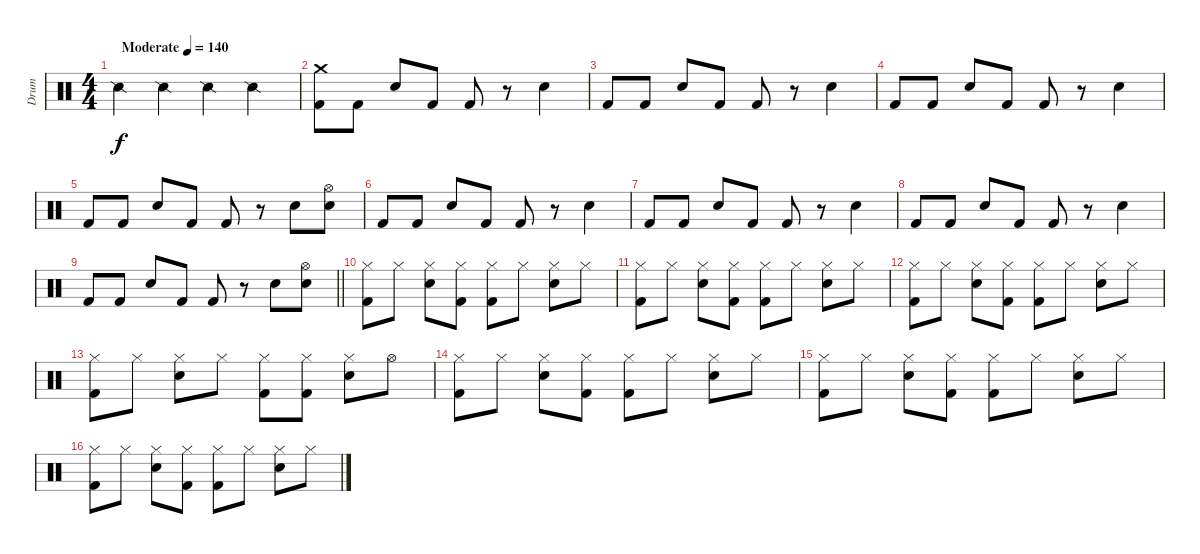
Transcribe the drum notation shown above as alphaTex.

\track ("Drum" "Drum") {instrument percussion}
\staff {score}
\articulation defaults
\ts (4 4)
\tempo (140 "Moderate")
\clef neutral
\ks c "Snare (side stick) 2".4{dy f} "Snare (side stick) 2".4 "Snare (side stick) 2".4 "Snare (side stick) 2".4
|
("Crash medium (hit)" "Kick (hit) 2").8 "Kick (hit) 2".8 "Electric Snare (hit)".8 "Kick (hit) 2".8 "Kick (hit) 2".8 r.8 "Electric Snare (hit)".4 |
"Kick (hit) 2".8 "Kick (hit) 2".8 "Electric Snare (hit)".8 "Kick (hit) 2".8 "Kick (hit) 2".8 r.8 "Electric Snare (hit)".4 |
"Kick (hit) 2".8 "Kick (hit) 2".8 "Electric Snare (hit)".8 "Kick (hit) 2".8 "Kick (hit) 2".8 r.8 "Electric Snare (hit)".4 |
"Kick (hit) 2".8 "Kick (hit) 2".8 "Electric Snare (hit)".8 "Kick (hit) 2".8 "Kick (hit) 2".8 r.8 "Electric Snare (hit)".8 ("Hi-Hat (open)" "Electric Snare (hit)").8 |
"Kick (hit) 2".8 "Kick (hit) 2".8 "Electric Snare (hit)".8 "Kick (hit) 2".8 "Kick (hit) 2".8 r.8 "Electric Snare (hit)".4 |
"Kick (hit) 2".8 "Kick (hit) 2".8 "Electric Snare (hit)".8 "Kick (hit) 2".8 "Kick (hit) 2".8 r.8 "Electric Snare (hit)".4 |
"Kick (hit) 2".8 "Kick (hit) 2".8 "Electric Snare (hit)".8 "Kick (hit) 2".8 "Kick (hit) 2".8 r.8 "Electric Snare (hit)".4 |
\barLineRight lightlight "Kick (hit) 2".8 "Kick (hit) 2".8 "Electric Snare (hit)".8 "Kick (hit) 2".8 "Kick (hit) 2".8
r.8 "Electric Snare (hit)".8 ("Hi-Hat (open)" "Electric Snare (hit)").8 |
("Hi-Hat (closed)" "Kick (hit) 2").8 "Hi-Hat (closed)".8 ("Hi-Hat (closed)" "Electric Snare (hit)").8 ("Hi-Hat (closed)" "Kick (hit) 2").8 ("Hi-Hat (closed)" "Kick (hit) 2").8 "Hi-Hat (closed)".8 ("Hi-Hat (closed)" "Electric Snare (hit)").8 "Hi-Hat (closed)".8 |
("Hi-Hat (closed)" "Kick (hit) 2").8 "Hi-Hat (closed)".8 ("Hi-Hat (closed)" "Electric Snare (hit)").8 ("Hi-Hat (closed)" "Kick (hit) 2").8 ("Hi-Hat (closed)" "Kick (hit) 2").8 "Hi-Hat (closed)".8 ("Hi-Hat (closed)" "Electric Snare (hit)").8 "Hi-Hat (closed)".8 |
("Hi-Hat (closed)" "Kick (hit) 2").8 "Hi-Hat (closed)".8 ("Hi-Hat (closed)" "Electric Snare (hit)").8 ("Hi-Hat (closed)" "Kick (hit) 2").8 ("Hi-Hat (closed)" "Kick (hit) 2").8 "Hi-Hat (closed)".8 ("Hi-Hat (closed)" "Electric Snare (hit)").8 "Hi-Hat (closed)".8 |
("Hi-Hat (closed)" "Kick (hit) 2").8 "Hi-Hat (closed)".8 ("Hi-Hat (closed)" "Electric Snare (hit)").8 "Hi-Hat (closed)".8 ("Hi-Hat (closed)" "Kick (hit) 2").8 ("Hi-Hat (closed)" "Kick (hit) 2").8 ("Hi-Hat (closed)" "Electric Snare (hit)").8 "Hi-Hat (open)".8 |
("Hi-Hat (closed)" "Kick (hit) 2").8 "Hi-Hat (closed)".8 ("Hi-Hat (closed)" "Electric Snare (hit)").8 ("Hi-Hat (closed)" "Kick (hit) 2").8 ("Hi-Hat (closed)" "Kick (hit) 2").8 "Hi-Hat (closed)".8 ("Hi-Hat (closed)" "Electric Snare (hit)").8 "Hi-Hat (closed)".8 |
("Hi-Hat (closed)" "Kick (hit) 2").8 "Hi-Hat (closed)".8 ("Hi-Hat (closed)" "Electric Snare (hit)").8 ("Hi-Hat (closed)" "Kick (hit) 2").8 ("Hi-Hat (closed)" "Kick (hit) 2").8 "Hi-Hat (closed)".8 ("Hi-Hat (closed)" "Electric Snare (hit)").8 "Hi-Hat (closed)".8 |
("Hi-Hat (closed)" "Kick (hit) 2").8 "Hi-Hat (closed)".8 ("Hi-Hat (closed)" "Electric Snare (hit)").8 ("Hi-Hat (closed)" "Kick (hit) 2").8 ("Hi-Hat (closed)" "Kick (hit) 2").8 "Hi-Hat (closed)".8 ("Hi-Hat (closed)" "Electric Snare (hit)").8 "Hi-Hat (closed)".8
